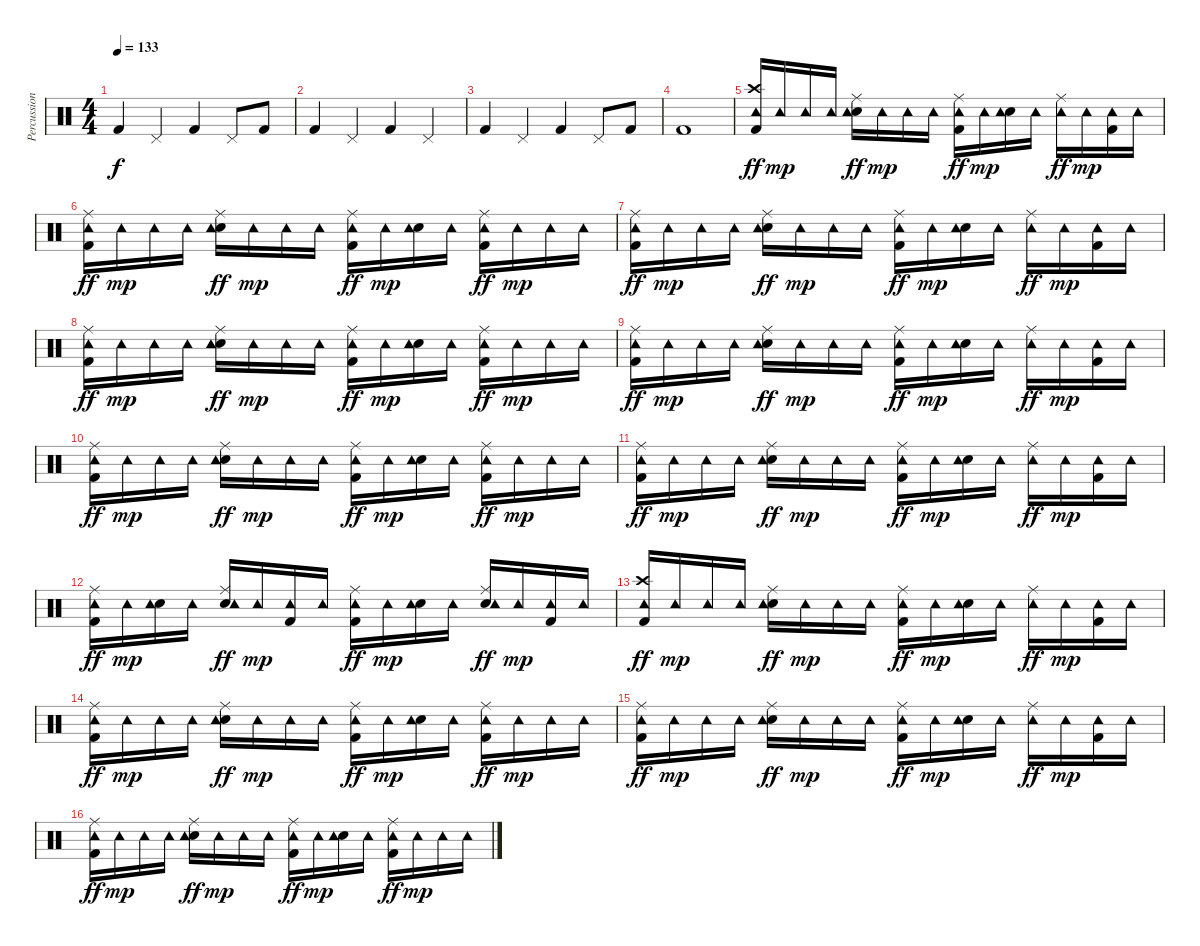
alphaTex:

\track ("Percussion" "Percussion") {instrument percussion}
\staff {score}
\articulation defaults
\ts (4 4)
\tempo 133
\clef neutral
\ks c "Kick (hit) 2".4{dy f} "Pedal Hi-Hat (hit)".4 "Kick (hit) 2".4 "Pedal Hi-Hat (hit)".8 "Kick (hit) 2".8
|
"Kick (hit) 2".4 "Pedal Hi-Hat (hit)".4 "Kick (hit) 2".4 "Pedal Hi-Hat (hit)".4 |
"Kick (hit) 2".4 "Pedal Hi-Hat (hit)".4 "Kick (hit) 2".4 "Pedal Hi-Hat (hit)".8 "Kick (hit) 2".8 |
"Kick (hit) 2".1 |
("Crash high (hit)" "Kick (hit) 2" "Tambourine (hit)").16{dy ff} "Tambourine (hit)".16{dy mp} "Tambourine (hit)".16 "Tambourine (hit)".16 ("Ride (middle)" "Electric Snare (hit)" "Tambourine (hit)").16{dy ff} "Tambourine (hit)".16{dy mp} "Tambourine (hit)".16 "Tambourine (hit)".16 ("Ride (middle)" "Kick (hit) 2" "Tambourine (hit)").16{dy ff} "Tambourine (hit)".16{dy mp} ("Electric Snare (hit)" "Tambourine (hit)").16 "Tambourine (hit)".16 ("Ride (middle)" "Tambourine (hit)").16{dy ff} "Tambourine (hit)".16{dy mp} ("Kick (hit) 2" "Tambourine (hit)").16 "Tambourine (hit)".16 |
("Ride (middle)" "Kick (hit) 2" "Tambourine (hit)").16{dy ff} "Tambourine (hit)".16{dy mp} "Tambourine (hit)".16 "Tambourine (hit)".16 ("Ride (middle)" "Electric Snare (hit)" "Tambourine (hit)").16{dy ff} "Tambourine (hit)".16{dy mp} "Tambourine (hit)".16 "Tambourine (hit)".16 ("Ride (middle)" "Kick (hit) 2" "Tambourine (hit)").16{dy ff} "Tambourine (hit)".16{dy mp} ("Electric Snare (hit)" "Tambourine (hit)").16 "Tambourine (hit)".16 ("Ride (middle)" "Kick (hit) 2" "Tambourine (hit)").16{dy ff} "Tambourine (hit)".16{dy mp} "Tambourine (hit)".16 "Tambourine (hit)".16 |
("Ride (middle)" "Kick (hit) 2" "Tambourine (hit)").16{dy ff} "Tambourine (hit)".16{dy mp} "Tambourine (hit)".16 "Tambourine (hit)".16 ("Ride (middle)" "Electric Snare (hit)" "Tambourine (hit)").16{dy ff} "Tambourine (hit)".16{dy mp} "Tambourine (hit)".16 "Tambourine (hit)".16 ("Ride (middle)" "Kick (hit) 2" "Tambourine (hit)").16{dy ff} "Tambourine (hit)".16{dy mp} ("Electric Snare (hit)" "Tambourine (hit)").16 "Tambourine (hit)".16 ("Ride (middle)" "Tambourine (hit)").16{dy ff} "Tambourine (hit)".16{dy mp} ("Kick (hit) 2" "Tambourine (hit)").16 "Tambourine (hit)".16 |
("Ride (middle)" "Kick (hit) 2" "Tambourine (hit)").16{dy ff} "Tambourine (hit)".16{dy mp} "Tambourine (hit)".16 "Tambourine (hit)".16 ("Ride (middle)" "Electric Snare (hit)" "Tambourine (hit)").16{dy ff} "Tambourine (hit)".16{dy mp} "Tambourine (hit)".16 "Tambourine (hit)".16 ("Ride (middle)" "Kick (hit) 2" "Tambourine (hit)").16{dy ff} "Tambourine (hit)".16{dy mp} ("Electric Snare (hit)" "Tambourine (hit)").16 "Tambourine (hit)".16 ("Ride (middle)" "Kick (hit) 2" "Tambourine (hit)").16{dy ff} "Tambourine (hit)".16{dy mp} "Tambourine (hit)".16 "Tambourine (hit)".16 |
("Ride (middle)" "Kick (hit) 2" "Tambourine (hit)").16{dy ff} "Tambourine (hit)".16{dy mp} "Tambourine (hit)".16 "Tambourine (hit)".16 ("Ride (middle)" "Electric Snare (hit)" "Tambourine (hit)").16{dy ff} "Tambourine (hit)".16{dy mp} "Tambourine (hit)".16 "Tambourine (hit)".16 ("Ride (middle)" "Kick (hit) 2" "Tambourine (hit)").16{dy ff} "Tambourine (hit)".16{dy mp} ("Electric Snare (hit)" "Tambourine (hit)").16 "Tambourine (hit)".16 ("Ride (middle)" "Tambourine (hit)").16{dy ff} "Tambourine (hit)".16{dy mp} ("Kick (hit) 2" "Tambourine (hit)").16 "Tambourine (hit)".16 |
("Ride (middle)" "Kick (hit) 2" "Tambourine (hit)").16{dy ff} "Tambourine (hit)".16{dy mp} "Tambourine (hit)".16 "Tambourine (hit)".16 ("Ride (middle)" "Electric Snare (hit)" "Tambourine (hit)").16{dy ff} "Tambourine (hit)".16{dy mp} "Tambourine (hit)".16 "Tambourine (hit)".16 ("Ride (middle)" "Kick (hit) 2" "Tambourine (hit)").16{dy ff} "Tambourine (hit)".16{dy mp} ("Electric Snare (hit)" "Tambourine (hit)").16 "Tambourine (hit)".16 ("Ride (middle)" "Kick (hit) 2" "Tambourine (hit)").16{dy ff} "Tambourine (hit)".16{dy mp} "Tambourine (hit)".16 "Tambourine (hit)".16 |
("Ride (middle)" "Kick (hit) 2" "Tambourine (hit)").16{dy ff} "Tambourine (hit)".16{dy mp} "Tambourine (hit)".16 "Tambourine (hit)".16 ("Ride (middle)" "Electric Snare (hit)" "Tambourine (hit)").16{dy ff} "Tambourine (hit)".16{dy mp} "Tambourine (hit)".16 "Tambourine (hit)".16 ("Ride (middle)" "Kick (hit) 2" "Tambourine (hit)").16{dy ff} "Tambourine (hit)".16{dy mp} ("Electric Snare (hit)" "Tambourine (hit)").16 "Tambourine (hit)".16 ("Ride (middle)" "Tambourine (hit)").16{dy ff} "Tambourine (hit)".16{dy mp} ("Kick (hit) 2" "Tambourine (hit)").16 "Tambourine (hit)".16 |
("Ride (middle)" "Kick (hit) 2" "Tambourine (hit)").16{dy ff} "Tambourine (hit)".16{dy mp} ("Electric Snare (hit)" "Tambourine (hit)").16 "Tambourine (hit)".16 ("Ride (middle)" "Electric Snare (hit)" "Tambourine (hit)").16{dy ff} "Tambourine (hit)".16{dy mp} ("Kick (hit) 2" "Tambourine (hit)").16 "Tambourine (hit)".16 ("Ride (middle)" "Kick (hit) 2" "Tambourine (hit)").16{dy ff} "Tambourine (hit)".16{dy mp} ("Electric Snare (hit)" "Tambourine (hit)").16 "Tambourine (hit)".16 ("Ride (middle)" "Electric Snare (hit)" "Tambourine (hit)").16{dy ff} "Tambourine (hit)".16{dy mp} ("Kick (hit) 2" "Tambourine (hit)").16 "Tambourine (hit)".16 |
("Crash high (hit)" "Kick (hit) 2" "Tambourine (hit)").16{dy ff} "Tambourine (hit)".16{dy mp} "Tambourine (hit)".16 "Tambourine (hit)".16 ("Ride (middle)" "Electric Snare (hit)" "Tambourine (hit)").16{dy ff} "Tambourine (hit)".16{dy mp} "Tambourine (hit)".16 "Tambourine (hit)".16 ("Ride (middle)" "Kick (hit) 2" "Tambourine (hit)").16{dy ff} "Tambourine (hit)".16{dy mp} ("Electric Snare (hit)" "Tambourine (hit)").16 "Tambourine (hit)".16 ("Ride (middle)" "Tambourine (hit)").16{dy ff} "Tambourine (hit)".16{dy mp} ("Kick (hit) 2" "Tambourine (hit)").16 "Tambourine (hit)".16 |
("Ride (middle)" "Kick (hit) 2" "Tambourine (hit)").16{dy ff} "Tambourine (hit)".16{dy mp} "Tambourine (hit)".16 "Tambourine (hit)".16 ("Ride (middle)" "Electric Snare (hit)" "Tambourine (hit)").16{dy ff} "Tambourine (hit)".16{dy mp} "Tambourine (hit)".16 "Tambourine (hit)".16 ("Ride (middle)" "Kick (hit) 2" "Tambourine (hit)").16{dy ff} "Tambourine (hit)".16{dy mp} ("Electric Snare (hit)" "Tambourine (hit)").16 "Tambourine (hit)".16 ("Ride (middle)" "Kick (hit) 2" "Tambourine (hit)").16{dy ff} "Tambourine (hit)".16{dy mp} "Tambourine (hit)".16 "Tambourine (hit)".16 |
("Ride (middle)" "Kick (hit) 2" "Tambourine (hit)").16{dy ff} "Tambourine (hit)".16{dy mp} "Tambourine (hit)".16 "Tambourine (hit)".16 ("Ride (middle)" "Electric Snare (hit)" "Tambourine (hit)").16{dy ff} "Tambourine (hit)".16{dy mp} "Tambourine (hit)".16 "Tambourine (hit)".16 ("Ride (middle)" "Kick (hit) 2" "Tambourine (hit)").16{dy ff} "Tambourine (hit)".16{dy mp} ("Electric Snare (hit)" "Tambourine (hit)").16 "Tambourine (hit)".16 ("Ride (middle)" "Tambourine (hit)").16{dy ff} "Tambourine (hit)".16{dy mp} ("Kick (hit) 2" "Tambourine (hit)").16 "Tambourine (hit)".16 |
("Ride (middle)" "Kick (hit) 2" "Tambourine (hit)").16{dy ff} "Tambourine (hit)".16{dy mp} "Tambourine (hit)".16 "Tambourine (hit)".16 ("Ride (middle)" "Electric Snare (hit)" "Tambourine (hit)").16{dy ff} "Tambourine (hit)".16{dy mp} "Tambourine (hit)".16 "Tambourine (hit)".16 ("Ride (middle)" "Kick (hit) 2" "Tambourine (hit)").16{dy ff} "Tambourine (hit)".16{dy mp} ("Electric Snare (hit)" "Tambourine (hit)").16 "Tambourine (hit)".16 ("Ride (middle)" "Kick (hit) 2" "Tambourine (hit)").16{dy ff} "Tambourine (hit)".16{dy mp} "Tambourine (hit)".16 "Tambourine (hit)".16
